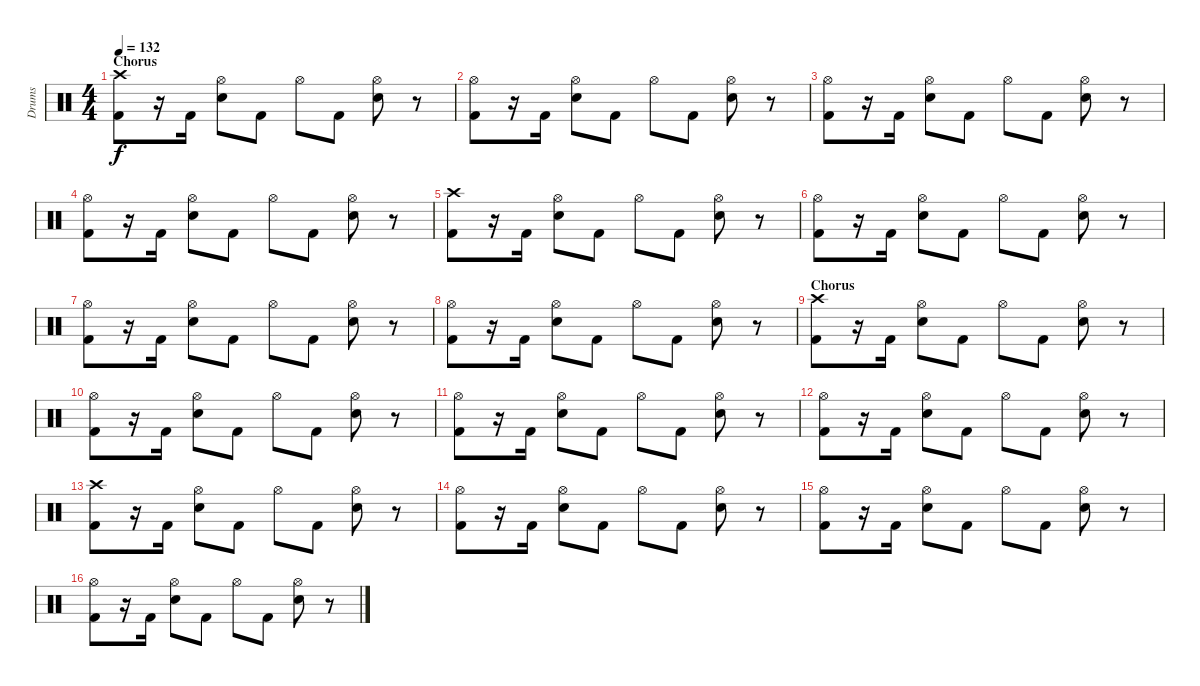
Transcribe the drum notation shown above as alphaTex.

\track ("Drums" "Drums") {instrument percussion}
\staff {score}
\articulation defaults
\ts (4 4)
\section ("" "Chorus")
\tempo 132
\clef neutral
\ks c
("Crash high (hit)" "Kick (hit) 2").8{dy f} r.16 "Kick (hit) 2".16 ("Hi-Hat (open)" "Snare (hit) 2").8 "Kick (hit) 2".8 "Hi-Hat (open)".8 "Kick (hit) 2".8 ("Hi-Hat (open)" "Snare (hit) 2").8 r.8 |
("Hi-Hat (open)" "Kick (hit) 2").8 r.16 "Kick (hit) 2".16 ("Hi-Hat (open)" "Snare (hit) 2").8 "Kick (hit) 2".8 "Hi-Hat (open)".8 "Kick (hit) 2".8 ("Hi-Hat (open)" "Snare (hit) 2").8 r.8 |
("Hi-Hat (open)" "Kick (hit) 2").8 r.16 "Kick (hit) 2".16 ("Hi-Hat (open)" "Snare (hit) 2").8 "Kick (hit) 2".8 "Hi-Hat (open)".8 "Kick (hit) 2".8 ("Hi-Hat (open)" "Snare (hit) 2").8 r.8 |
("Hi-Hat (open)" "Kick (hit) 2").8 r.16 "Kick (hit) 2".16 ("Hi-Hat (open)" "Snare (hit) 2").8 "Kick (hit) 2".8 "Hi-Hat (open)".8 "Kick (hit) 2".8 ("Hi-Hat (open)" "Snare (hit) 2").8 r.8 |
("Crash high (hit)" "Kick (hit) 2").8 r.16 "Kick (hit) 2".16 ("Hi-Hat (open)" "Snare (hit) 2").8 "Kick (hit) 2".8 "Hi-Hat (open)".8 "Kick (hit) 2".8 ("Hi-Hat (open)" "Snare (hit) 2").8 r.8 |
("Hi-Hat (open)" "Kick (hit) 2").8 r.16 "Kick (hit) 2".16 ("Hi-Hat (open)" "Snare (hit) 2").8 "Kick (hit) 2".8 "Hi-Hat (open)".8 "Kick (hit) 2".8 ("Hi-Hat (open)" "Snare (hit) 2").8 r.8 |
("Hi-Hat (open)" "Kick (hit) 2").8 r.16 "Kick (hit) 2".16 ("Hi-Hat (open)" "Snare (hit) 2").8 "Kick (hit) 2".8 "Hi-Hat (open)".8 "Kick (hit) 2".8 ("Hi-Hat (open)" "Snare (hit) 2").8 r.8 |
("Hi-Hat (open)" "Kick (hit) 2").8 r.16 "Kick (hit) 2".16 ("Hi-Hat (open)" "Snare (hit) 2").8 "Kick (hit) 2".8 "Hi-Hat (open)".8 "Kick (hit) 2".8 ("Hi-Hat (open)" "Snare (hit) 2").8 r.8 |
\section ("" "Chorus")
("Crash high (hit)" "Kick (hit) 2").8 r.16 "Kick (hit) 2".16 ("Hi-Hat (open)" "Snare (hit) 2").8 "Kick (hit) 2".8 "Hi-Hat (open)".8 "Kick (hit) 2".8 ("Hi-Hat (open)" "Snare (hit) 2").8 r.8 |
("Hi-Hat (open)" "Kick (hit) 2").8 r.16 "Kick (hit) 2".16 ("Hi-Hat (open)" "Snare (hit) 2").8 "Kick (hit) 2".8 "Hi-Hat (open)".8 "Kick (hit) 2".8 ("Hi-Hat (open)" "Snare (hit) 2").8 r.8 |
("Hi-Hat (open)" "Kick (hit) 2").8 r.16 "Kick (hit) 2".16 ("Hi-Hat (open)" "Snare (hit) 2").8 "Kick (hit) 2".8 "Hi-Hat (open)".8 "Kick (hit) 2".8 ("Hi-Hat (open)" "Snare (hit) 2").8 r.8 |
("Hi-Hat (open)" "Kick (hit) 2").8 r.16 "Kick (hit) 2".16 ("Hi-Hat (open)" "Snare (hit) 2").8 "Kick (hit) 2".8 "Hi-Hat (open)".8 "Kick (hit) 2".8 ("Hi-Hat (open)" "Snare (hit) 2").8 r.8 |
("Crash high (hit)" "Kick (hit) 2").8 r.16 "Kick (hit) 2".16 ("Hi-Hat (open)" "Snare (hit) 2").8 "Kick (hit) 2".8 "Hi-Hat (open)".8 "Kick (hit) 2".8 ("Hi-Hat (open)" "Snare (hit) 2").8 r.8 |
("Hi-Hat (open)" "Kick (hit) 2").8 r.16 "Kick (hit) 2".16 ("Hi-Hat (open)" "Snare (hit) 2").8 "Kick (hit) 2".8 "Hi-Hat (open)".8 "Kick (hit) 2".8 ("Hi-Hat (open)" "Snare (hit) 2").8 r.8 |
("Hi-Hat (open)" "Kick (hit) 2").8 r.16 "Kick (hit) 2".16 ("Hi-Hat (open)" "Snare (hit) 2").8 "Kick (hit) 2".8 "Hi-Hat (open)".8 "Kick (hit) 2".8 ("Hi-Hat (open)" "Snare (hit) 2").8 r.8 |
("Hi-Hat (open)" "Kick (hit) 2").8 r.16 "Kick (hit) 2".16 ("Hi-Hat (open)" "Snare (hit) 2").8 "Kick (hit) 2".8 "Hi-Hat (open)".8 "Kick (hit) 2".8 ("Hi-Hat (open)" "Snare (hit) 2").8 r.8
